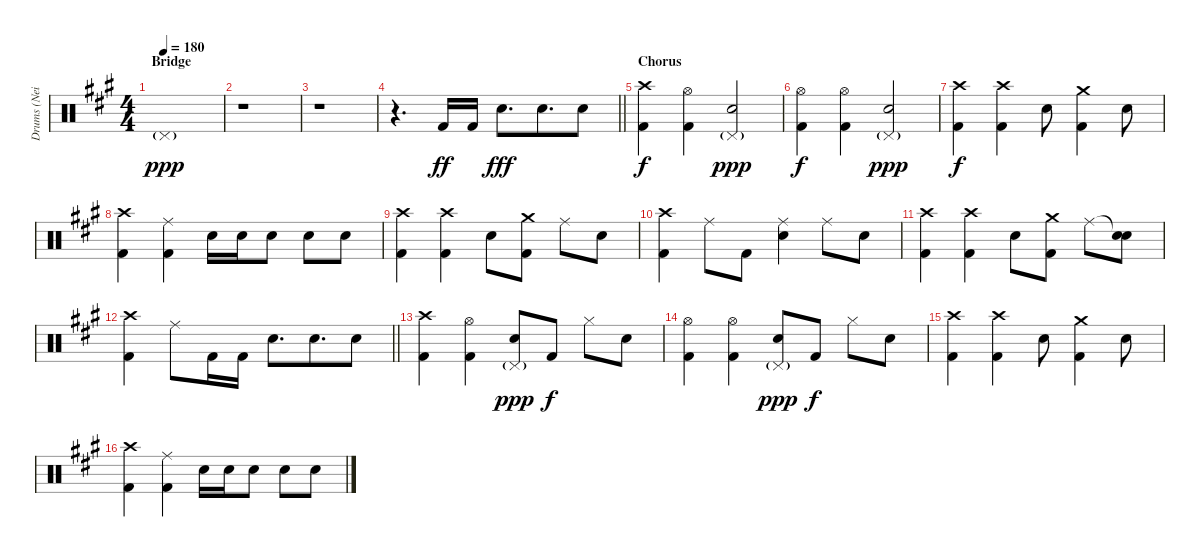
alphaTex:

\track ("Drums (Neil Sanderson)" "Drums (Nei") {instrument percussion}
\staff {score}
\articulation defaults
\ts (4 4)
\section ("" "Bridge")
\tempo 180
\clef neutral
\ks f#minor "Pedal Hi-Hat (hit)"{g}.1{dy ppp}
|
r.1 |
r.1 |
\barLineRight lightlight
r.4{d} "Kick (hit) 2".16{dy ff} "Kick (hit) 2".16 "Electric Snare (hit)".8{d dy fff} "Electric Snare (hit)".8{d beam merge} "Electric Snare (hit)".8 |
\section ("" "Chorus")
("Crash high (hit)" "Kick (hit) 2").4{dy f} ("Hi-Hat (open)" "Kick (hit) 2").4 ("Pedal Hi-Hat (hit)"{g} "Electric Snare (hit)").2{dy ppp} |
("Hi-Hat (open)" "Kick (hit) 2").4{dy f} ("Hi-Hat (open)" "Kick (hit) 2").4 ("Pedal Hi-Hat (hit)"{g} "Electric Snare (hit)").2{dy ppp} |
("Crash high (hit)" "Kick (hit) 2").4{dy f} ("Crash high (hit)" "Kick (hit) 2").4 "Electric Snare (hit)".8 ("Crash medium (hit)" "Kick (hit) 2").4 "Electric Snare (hit)".8 |
("Crash high (hit)" "Kick (hit) 2").4 ("Ride (middle)" "Kick (hit) 2").4 "Electric Snare (hit)".16 "Electric Snare (hit)".16 "Electric Snare (hit)".8 "Electric Snare (hit)".8 "Electric Snare (hit)".8 |
("Crash high (hit)" "Kick (hit) 2").4 ("Crash high (hit)" "Kick (hit) 2").4 "Electric Snare (hit)".8 ("Crash medium (hit)" "Kick (hit) 2").8 "Ride (middle)".8 "Electric Snare (hit)".8 |
("Crash high (hit)" "Kick (hit) 2").4 "Ride (middle)".8 "Kick (hit) 2".8 ("Ride (middle)" "Electric Snare (hit)").4 "Ride (middle)".8 "Electric Snare (hit)".8 |
("Crash high (hit)" "Kick (hit) 2").4 ("Crash high (hit)" "Kick (hit) 2").4 "Electric Snare (hit)".8 ("Crash medium (hit)" "Kick (hit) 2").8 "Ride (middle)".8 ("Snare (hit)"{t} "Electric Snare (hit)").8 |
\barLineRight lightlight
("Crash high (hit)" "Kick (hit) 2").4 "Ride (middle)".8 "Kick (hit) 2".16 "Kick (hit) 2".16 "Electric Snare (hit)".8{d} "Electric Snare (hit)".8{d beam merge} "Electric Snare (hit)".8 |
("Crash high (hit)" "Kick (hit) 2").4 ("Hi-Hat (open)" "Kick (hit) 2").4 ("Pedal Hi-Hat (hit)"{g} "Electric Snare (hit)").8{dy ppp} "Kick (hit) 2".8{dy f} "Hi-Hat (closed)".8 "Electric Snare (hit)".8 |
("Hi-Hat (open)" "Kick (hit) 2").4 ("Hi-Hat (open)" "Kick (hit) 2").4 ("Pedal Hi-Hat (hit)"{g} "Electric Snare (hit)").8{dy ppp} "Kick (hit) 2".8{dy f} "Hi-Hat (closed)".8 "Electric Snare (hit)".8 |
("Crash high (hit)" "Kick (hit) 2").4 ("Crash high (hit)" "Kick (hit) 2").4 "Electric Snare (hit)".8 ("Crash medium (hit)" "Kick (hit) 2").4 "Electric Snare (hit)".8 |
("Crash high (hit)" "Kick (hit) 2").4 ("Ride (middle)" "Kick (hit) 2").4 "Electric Snare (hit)".16 "Electric Snare (hit)".16 "Electric Snare (hit)".8 "Electric Snare (hit)".8 "Electric Snare (hit)".8
